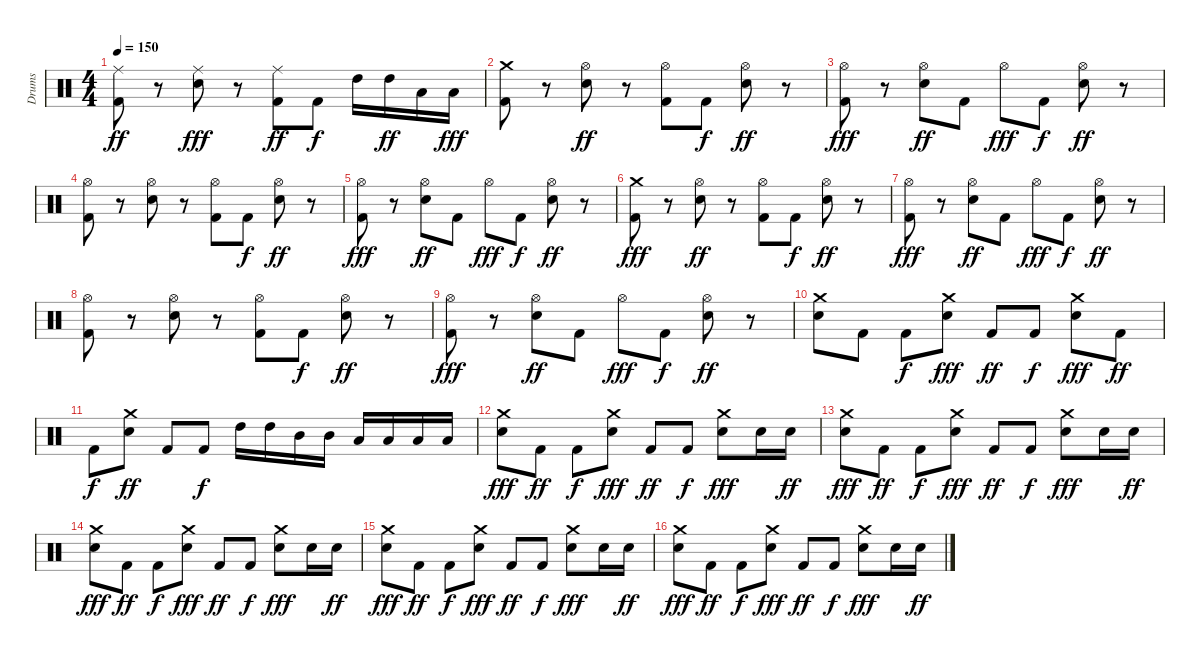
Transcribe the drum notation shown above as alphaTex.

\track ("Drums" "Drums") {instrument percussion}
\staff {score}
\articulation defaults
\ts (4 4)
\tempo 150
\clef neutral
\ks c
("Kick (hit) 2" "Ride (middle)").8{dy ff} r.8 ("Snare (hit) 2" "Ride (middle)").8{dy fff} r.8 ("Kick (hit) 2" "Ride (middle)").8{dy ff} "Kick (hit) 2".8{dy f} "High Tom (hit)".16 "High Tom (hit)".16{dy ff} "Low Tom (hit)".16 "Low Tom (hit)".16{dy fff} |
("Kick (hit) 2" "Crash medium (hit)").8 r.8 ("Hi-Hat (open)" "Snare (hit) 2").8{dy ff} r.8 ("Hi-Hat (open)" "Kick (hit) 2").8 "Kick (hit) 2".8{dy f} ("Hi-Hat (open)" "Snare (hit) 2").8{dy ff} r.8 |
("Kick (hit) 2" "Hi-Hat (open)").8{dy fff} r.8 ("Snare (hit) 2" "Hi-Hat (open)").8{dy ff} "Kick (hit) 2".8 "Hi-Hat (open)".8{dy fff} "Kick (hit) 2".8{dy f} ("Snare (hit) 2" "Hi-Hat (open)").8{dy ff} r.8 |
("Kick (hit) 2" "Hi-Hat (open)").8 r.8 ("Hi-Hat (open)" "Snare (hit) 2").8 r.8 ("Hi-Hat (open)" "Kick (hit) 2").8 "Kick (hit) 2".8{dy f} ("Hi-Hat (open)" "Snare (hit) 2").8{dy ff} r.8 |
("Kick (hit) 2" "Hi-Hat (open)").8{dy fff} r.8 ("Snare (hit) 2" "Hi-Hat (open)").8{dy ff} "Kick (hit) 2".8 "Hi-Hat (open)".8{dy fff} "Kick (hit) 2".8{dy f} ("Snare (hit) 2" "Hi-Hat (open)").8{dy ff} r.8 |
("Kick (hit) 2" "Crash medium (hit)").8{dy fff} r.8 ("Hi-Hat (open)" "Snare (hit) 2").8{dy ff} r.8 ("Hi-Hat (open)" "Kick (hit) 2").8 "Kick (hit) 2".8{dy f} ("Hi-Hat (open)" "Snare (hit) 2").8{dy ff} r.8 |
("Kick (hit) 2" "Hi-Hat (open)").8{dy fff} r.8 ("Snare (hit) 2" "Hi-Hat (open)").8{dy ff} "Kick (hit) 2".8 "Hi-Hat (open)".8{dy fff} "Kick (hit) 2".8{dy f} ("Snare (hit) 2" "Hi-Hat (open)").8{dy ff} r.8 |
("Kick (hit) 2" "Hi-Hat (open)").8 r.8 ("Hi-Hat (open)" "Snare (hit) 2").8 r.8 ("Hi-Hat (open)" "Kick (hit) 2").8 "Kick (hit) 2".8{dy f} ("Hi-Hat (open)" "Snare (hit) 2").8{dy ff} r.8 |
("Kick (hit) 2" "Hi-Hat (open)").8{dy fff} r.8 ("Snare (hit) 2" "Hi-Hat (open)").8{dy ff} "Kick (hit) 2".8 "Hi-Hat (open)".8{dy fff} "Kick (hit) 2".8{dy f} ("Snare (hit) 2" "Hi-Hat (open)").8{dy ff} r.8 |
("Snare (hit) 2" "Crash medium (hit)").8 "Kick (hit) 2".8 "Kick (hit) 2".8{dy f} ("Snare (hit) 2" "Crash medium (hit)").8{dy fff} "Kick (hit) 2".8{dy ff} "Kick (hit) 2".8{dy f} ("Snare (hit) 2" "Crash medium (hit)").8{dy fff} "Kick (hit) 2".8{dy ff} |
"Kick (hit) 2".8{dy f} ("Crash medium (hit)" "Snare (hit) 2").8{dy ff} "Kick (hit) 2".8 "Kick (hit) 2".8{dy f} "High Tom (hit)".16{volume 14} "High Tom (hit)".16{volume 15} "Mid Tom (hit)".16{volume 15} "Mid Tom (hit)".16 "Low Tom (hit)".16{volume 15} "Low Tom (hit)".16{volume 16} "Low Floor Tom (hit)".16 "Low Floor Tom (hit)".16 |
("Snare (hit) 2" "Crash medium (hit)").8{dy fff volume 16} "Kick (hit) 2".8{dy ff} "Kick (hit) 2".8{dy f} ("Snare (hit) 2" "Crash medium (hit)").8{dy fff} "Kick (hit) 2".8{dy ff} "Kick (hit) 2".8{dy f} ("Snare (hit) 2" "Crash medium (hit)").8{dy fff} "Snare (hit) 2".16 "Snare (hit) 2".16{dy ff} |
("Snare (hit) 2" "Crash medium (hit)").8{dy fff} "Kick (hit) 2".8{dy ff} "Kick (hit) 2".8{dy f} ("Snare (hit) 2" "Crash medium (hit)").8{dy fff} "Kick (hit) 2".8{dy ff} "Kick (hit) 2".8{dy f} ("Snare (hit) 2" "Crash medium (hit)").8{dy fff} "Snare (hit) 2".16 "Snare (hit) 2".16{dy ff} |
("Snare (hit) 2" "Crash medium (hit)").8{dy fff} "Kick (hit) 2".8{dy ff} "Kick (hit) 2".8{dy f} ("Snare (hit) 2" "Crash medium (hit)").8{dy fff} "Kick (hit) 2".8{dy ff} "Kick (hit) 2".8{dy f} ("Snare (hit) 2" "Crash medium (hit)").8{dy fff} "Snare (hit) 2".16 "Snare (hit) 2".16{dy ff} |
("Snare (hit) 2" "Crash medium (hit)").8{dy fff} "Kick (hit) 2".8{dy ff} "Kick (hit) 2".8{dy f} ("Snare (hit) 2" "Crash medium (hit)").8{dy fff} "Kick (hit) 2".8{dy ff} "Kick (hit) 2".8{dy f} ("Snare (hit) 2" "Crash medium (hit)").8{dy fff} "Snare (hit) 2".16 "Snare (hit) 2".16{dy ff} |
("Snare (hit) 2" "Crash medium (hit)").8{dy fff} "Kick (hit) 2".8{dy ff} "Kick (hit) 2".8{dy f} ("Snare (hit) 2" "Crash medium (hit)").8{dy fff} "Kick (hit) 2".8{dy ff} "Kick (hit) 2".8{dy f} ("Snare (hit) 2" "Crash medium (hit)").8{dy fff} "Snare (hit) 2".16 "Snare (hit) 2".16{dy ff}
